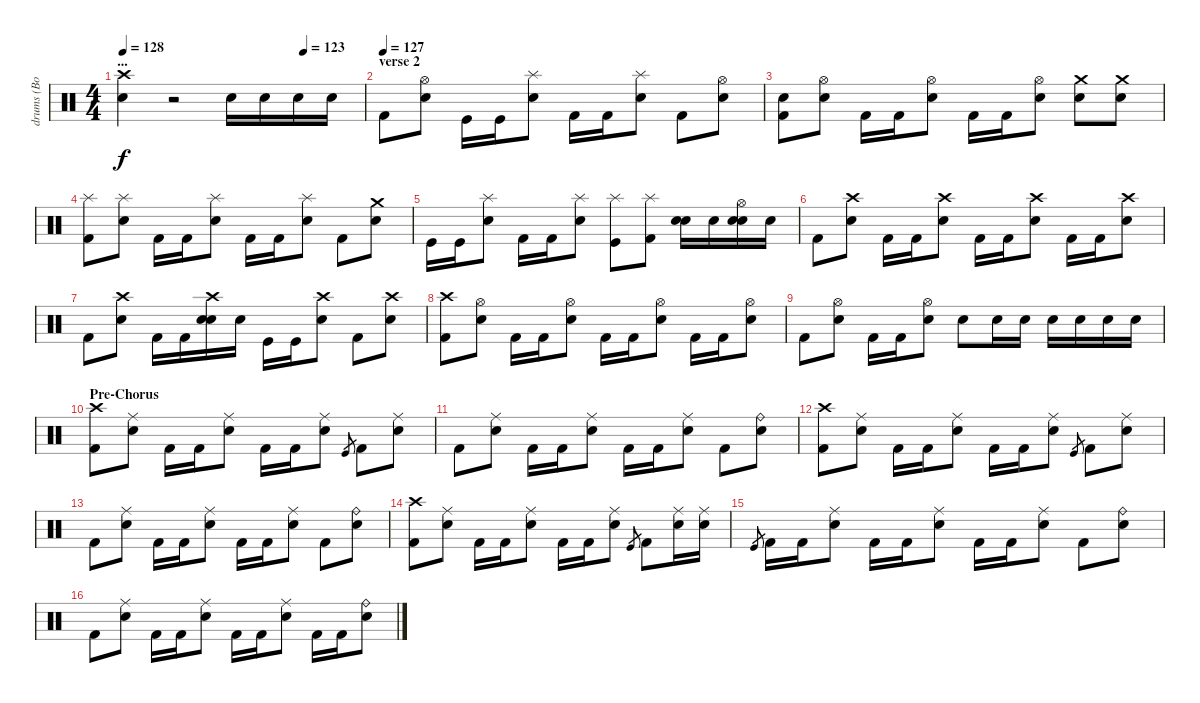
\track (" drums (Bob Bryar)" " drums (Bo") {instrument percussion}
\staff {score}
\articulation defaults
\ts (4 4)
\section ("" "...")
\tempo 128
\tempo (123 0.75)
\clef neutral
\ks c
("Crash high (hit)" "Snare (hit) 2").4{dy f} r.2 "Snare (hit) 2".16 "Snare (hit) 2".16 "Snare (hit) 2".16 "Snare (hit) 2".16 |
\section ("" "verse 2")
\tempo (127)
"Kick (hit) 2".8 ("Hi-Hat (open)" "Snare (hit) 2").8 "Kick (hit)".16 "Kick (hit)".16 ("Splash (hit)" "Snare (hit) 2").8 "Kick (hit) 2".16 "Kick (hit) 2".16 ("Splash (hit)" "Snare (hit) 2").8 "Kick (hit) 2".8 ("Hi-Hat (open)" "Snare (hit) 2").8 |
("Kick (hit) 2" "Electric Snare (hit)").8 ("Hi-Hat (open)" "Snare (hit) 2").8 "Kick (hit) 2".16 "Kick (hit) 2".16 ("Hi-Hat (open)" "Snare (hit) 2").8 "Kick (hit) 2".16 "Kick (hit) 2".16 ("Hi-Hat (open)" "Snare (hit) 2").8 ("Crash medium (hit)" "Snare (hit) 2").8 ("Crash medium (hit)" "Snare (hit) 2").8 |
("Splash (hit)" "Kick (hit) 2").8 ("Splash (hit)" "Snare (hit) 2").8 "Kick (hit) 2".16 "Kick (hit) 2".16 ("Splash (hit)" "Snare (hit) 2").8 "Kick (hit) 2".16 "Kick (hit) 2".16 ("Splash (hit)" "Snare (hit) 2").8 "Kick (hit) 2".8 ("Crash medium (hit)" "Snare (hit) 2").8 |
"Kick (hit)".16 "Kick (hit)".16 ("Splash (hit)" "Snare (hit) 2").8 "Kick (hit) 2".16 "Kick (hit) 2".16 ("Splash (hit)" "Snare (hit) 2").8 ("Splash (hit)" "Kick (hit)").8 ("Splash (hit)" "Kick (hit) 2").8 ("Snare (hit) 2" "Electric Snare (hit)").16 "Snare (hit) 2".16 ("Hi-Hat (open)" "Snare (hit) 2" "Electric Snare (hit)").16 "Snare (hit) 2".16 |
"Kick (hit) 2".8 ("Crash high (hit)" "Snare (hit) 2").8 "Kick (hit) 2".16 "Kick (hit) 2".16 ("Crash high (hit)" "Snare (hit) 2").8 "Kick (hit) 2".16 "Kick (hit) 2".16 ("Crash high (hit)" "Snare (hit) 2").8 "Kick (hit) 2".16 "Kick (hit) 2".16 ("Crash high (hit)" "Snare (hit) 2").8 |
"Kick (hit) 2".8 ("Crash high (hit)" "Electric Snare (hit)").8 "Kick (hit) 2".16 "Kick (hit) 2".16 ("Crash high (hit)" "Electric Snare (hit)" "Snare (hit) 2").16 "Snare (hit) 2".16 "Kick (hit)".16 "Kick (hit)".16 ("Crash high (hit)" "Snare (hit) 2").8 "Kick (hit) 2".8 ("Crash high (hit)" "Snare (hit) 2").8 |
("Crash high (hit)" "Kick (hit) 2").8 ("Snare (hit) 2" "Hi-Hat (open)").8 "Kick (hit) 2".16 "Kick (hit) 2".16 ("Hi-Hat (open)" "Snare (hit) 2").8 "Kick (hit) 2".16 "Kick (hit) 2".16 ("Hi-Hat (open)" "Snare (hit) 2").8 "Kick (hit) 2".16 "Kick (hit) 2".16 ("Hi-Hat (open)" "Snare (hit) 2").8 |
"Kick (hit) 2".8 ("Hi-Hat (open)" "Snare (hit) 2").8 "Kick (hit) 2".16 "Kick (hit) 2".16 ("Hi-Hat (open)" "Snare (hit) 2").8 "Snare (hit) 2".8 "Snare (hit) 2".16 "Snare (hit) 2".16 "Snare (hit) 2".16 "Snare (hit) 2".16 "Snare (hit) 2".16 "Snare (hit) 2".16 |
\section ("" "Pre-Chorus")
("Crash high (hit)" "Kick (hit) 2").8 ("Ride (middle)" "Snare (hit) 2").8 "Kick (hit) 2".16 "Kick (hit) 2".16 ("Ride (middle)" "Snare (hit) 2").8 "Kick (hit) 2".16 "Kick (hit) 2".16 ("Ride (middle)" "Snare (hit) 2").8 "Kick (hit)".8{gr} "Kick (hit) 2".8 ("Ride (middle)" "Snare (hit) 2").8 |
"Kick (hit) 2".8 ("Ride (middle)" "Snare (hit) 2").8 "Kick (hit) 2".16 "Kick (hit) 2".16 ("Ride (middle)" "Snare (hit) 2").8 "Kick (hit) 2".16 "Kick (hit) 2".16 ("Ride (middle)" "Snare (hit) 2").8 "Kick (hit) 2".8 ("Ride (bell)" "Snare (hit) 2").8 |
("Crash high (hit)" "Kick (hit) 2").8 ("Ride (middle)" "Snare (hit) 2").8 "Kick (hit) 2".16 "Kick (hit) 2".16 ("Ride (middle)" "Snare (hit) 2").8 "Kick (hit) 2".16 "Kick (hit) 2".16 ("Ride (middle)" "Snare (hit) 2").8 "Kick (hit)".8{gr} "Kick (hit) 2".8 ("Ride (middle)" "Snare (hit) 2").8 |
"Kick (hit) 2".8 ("Ride (middle)" "Snare (hit) 2").8 "Kick (hit) 2".16 "Kick (hit) 2".16 ("Ride (middle)" "Snare (hit) 2").8 "Kick (hit) 2".16 "Kick (hit) 2".16 ("Ride (middle)" "Snare (hit) 2").8 "Kick (hit) 2".8 ("Ride (bell)" "Snare (hit) 2").8 |
("Crash high (hit)" "Kick (hit) 2").8 ("Ride (middle)" "Snare (hit) 2").8 "Kick (hit) 2".16 "Kick (hit) 2".16 ("Ride (middle)" "Snare (hit) 2").8 "Kick (hit) 2".16 "Kick (hit) 2".16 ("Ride (middle)" "Snare (hit) 2").8 "Kick (hit)".8{gr} "Kick (hit) 2".8 ("Ride (middle)" "Snare (hit) 2").16 ("Ride (middle)" "Snare (hit) 2").16 |
"Kick (hit)".8{gr} "Kick (hit) 2".16 "Kick (hit) 2".16 ("Ride (middle)" "Snare (hit) 2").8 "Kick (hit) 2".16 "Kick (hit) 2".16 ("Ride (middle)" "Snare (hit) 2").8 "Kick (hit) 2".16 "Kick (hit) 2".16 ("Ride (middle)" "Snare (hit) 2").8 "Kick (hit) 2".8 ("Ride (bell)" "Snare (hit) 2").8 |
"Kick (hit) 2".8 ("Ride (middle)" "Snare (hit) 2").8 "Kick (hit) 2".16 "Kick (hit) 2".16 ("Ride (middle)" "Snare (hit) 2").8 "Kick (hit) 2".16 "Kick (hit) 2".16 ("Ride (middle)" "Snare (hit) 2").8 "Kick (hit) 2".16 "Kick (hit) 2".16 ("Ride (bell)" "Snare (hit) 2").8
